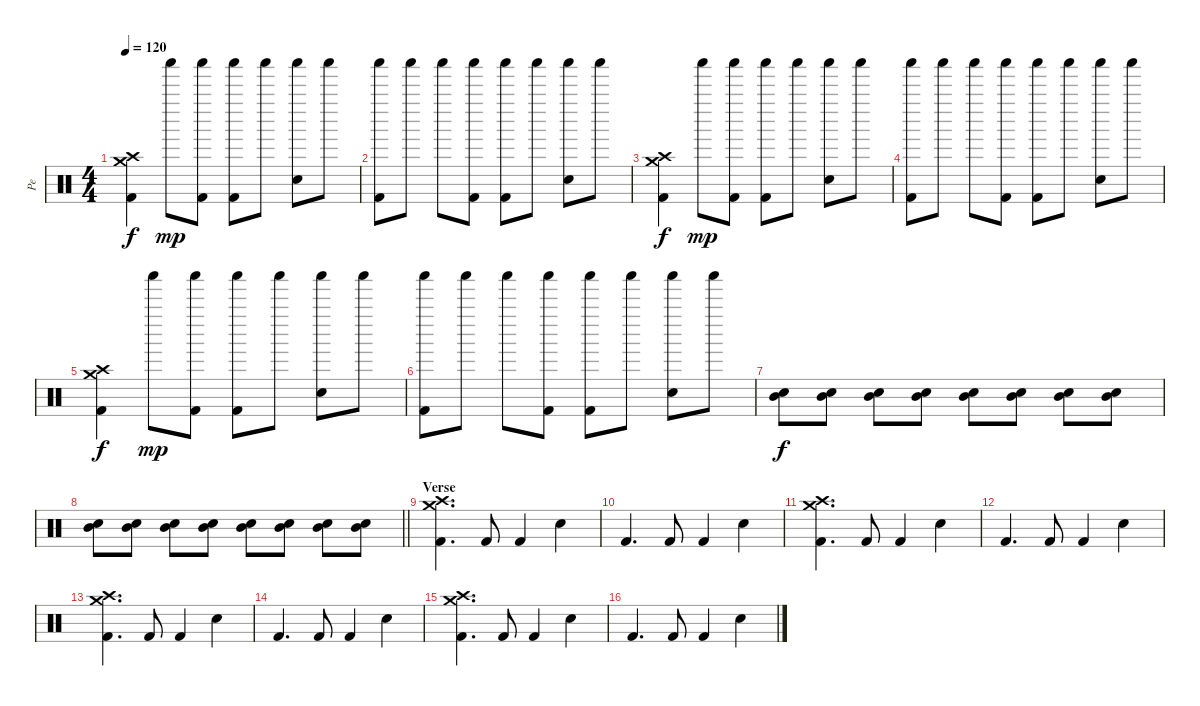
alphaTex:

\track ("Pe" "Pe") {instrument percussion}
\staff {score}
\articulation defaults
\ts (4 4)
\tempo 120
\clef neutral
\ks c
("Crash high (hit)" "Crash medium (hit)" "Kick (hit) 2").4{dy f} "Shaker (hit)".8{dy mp} ("Shaker (hit)" "Kick (hit) 2").8 ("Shaker (hit)" "Kick (hit) 2").8 "Shaker (hit)".8 ("Shaker (hit)" "Electric Snare (hit)").8 "Shaker (hit)".8 |
("Shaker (hit)" "Kick (hit) 2").8 "Shaker (hit)".8 "Shaker (hit)".8 ("Shaker (hit)" "Kick (hit) 2").8 ("Shaker (hit)" "Kick (hit) 2").8 "Shaker (hit)".8 ("Shaker (hit)" "Electric Snare (hit)").8 "Shaker (hit)".8 |
("Crash high (hit)" "Crash medium (hit)" "Kick (hit) 2").4{dy f} "Shaker (hit)".8{dy mp} ("Shaker (hit)" "Kick (hit) 2").8 ("Shaker (hit)" "Kick (hit) 2").8 "Shaker (hit)".8 ("Shaker (hit)" "Electric Snare (hit)").8 "Shaker (hit)".8 |
("Shaker (hit)" "Kick (hit) 2").8 "Shaker (hit)".8 "Shaker (hit)".8 ("Shaker (hit)" "Kick (hit) 2").8 ("Shaker (hit)" "Kick (hit) 2").8 "Shaker (hit)".8 ("Shaker (hit)" "Electric Snare (hit)").8 "Shaker (hit)".8 |
("Crash high (hit)" "Crash medium (hit)" "Kick (hit) 2").4{dy f} "Shaker (hit)".8{dy mp} ("Shaker (hit)" "Kick (hit) 2").8 ("Shaker (hit)" "Kick (hit) 2").8 "Shaker (hit)".8 ("Shaker (hit)" "Electric Snare (hit)").8 "Shaker (hit)".8 |
("Shaker (hit)" "Kick (hit) 2").8 "Shaker (hit)".8 "Shaker (hit)".8 ("Shaker (hit)" "Kick (hit) 2").8 ("Shaker (hit)" "Kick (hit) 2").8 "Shaker (hit)".8 ("Shaker (hit)" "Electric Snare (hit)").8 "Shaker (hit)".8 |
("Mid Tom (hit)" "Snare (hit) 2").8{dy f} ("Mid Tom (hit)" "Snare (hit) 2").8 ("Mid Tom (hit)" "Snare (hit) 2").8 ("Mid Tom (hit)" "Snare (hit) 2").8 ("Mid Tom (hit)" "Snare (hit) 2").8 ("Mid Tom (hit)" "Snare (hit) 2").8 ("Mid Tom (hit)" "Snare (hit) 2").8 ("Mid Tom (hit)" "Snare (hit) 2").8 |
\barLineRight lightlight
("Mid Tom (hit)" "Snare (hit) 2").8 ("Mid Tom (hit)" "Snare (hit) 2").8 ("Mid Tom (hit)" "Snare (hit) 2").8 ("Mid Tom (hit)" "Snare (hit) 2").8 ("Mid Tom (hit)" "Snare (hit) 2").8 ("Mid Tom (hit)" "Snare (hit) 2").8 ("Mid Tom (hit)" "Snare (hit) 2").8 ("Mid Tom (hit)" "Snare (hit) 2").8 |
\section ("" "Verse")
("Crash high (hit)" "Crash medium (hit)" "Kick (hit) 2").4{d} "Kick (hit) 2".8 "Kick (hit) 2".4 "Electric Snare (hit)".4 |
"Kick (hit) 2".4{d} "Kick (hit) 2".8 "Kick (hit) 2".4 "Electric Snare (hit)".4 |
("Crash high (hit)" "Crash medium (hit)" "Kick (hit) 2").4{d} "Kick (hit) 2".8 "Kick (hit) 2".4 "Electric Snare (hit)".4 |
"Kick (hit) 2".4{d} "Kick (hit) 2".8 "Kick (hit) 2".4 "Electric Snare (hit)".4 |
("Crash high (hit)" "Crash medium (hit)" "Kick (hit) 2").4{d} "Kick (hit) 2".8 "Kick (hit) 2".4 "Electric Snare (hit)".4 |
"Kick (hit) 2".4{d} "Kick (hit) 2".8 "Kick (hit) 2".4 "Electric Snare (hit)".4 |
("Crash high (hit)" "Crash medium (hit)" "Kick (hit) 2").4{d} "Kick (hit) 2".8 "Kick (hit) 2".4 "Electric Snare (hit)".4 |
"Kick (hit) 2".4{d} "Kick (hit) 2".8 "Kick (hit) 2".4 "Electric Snare (hit)".4
